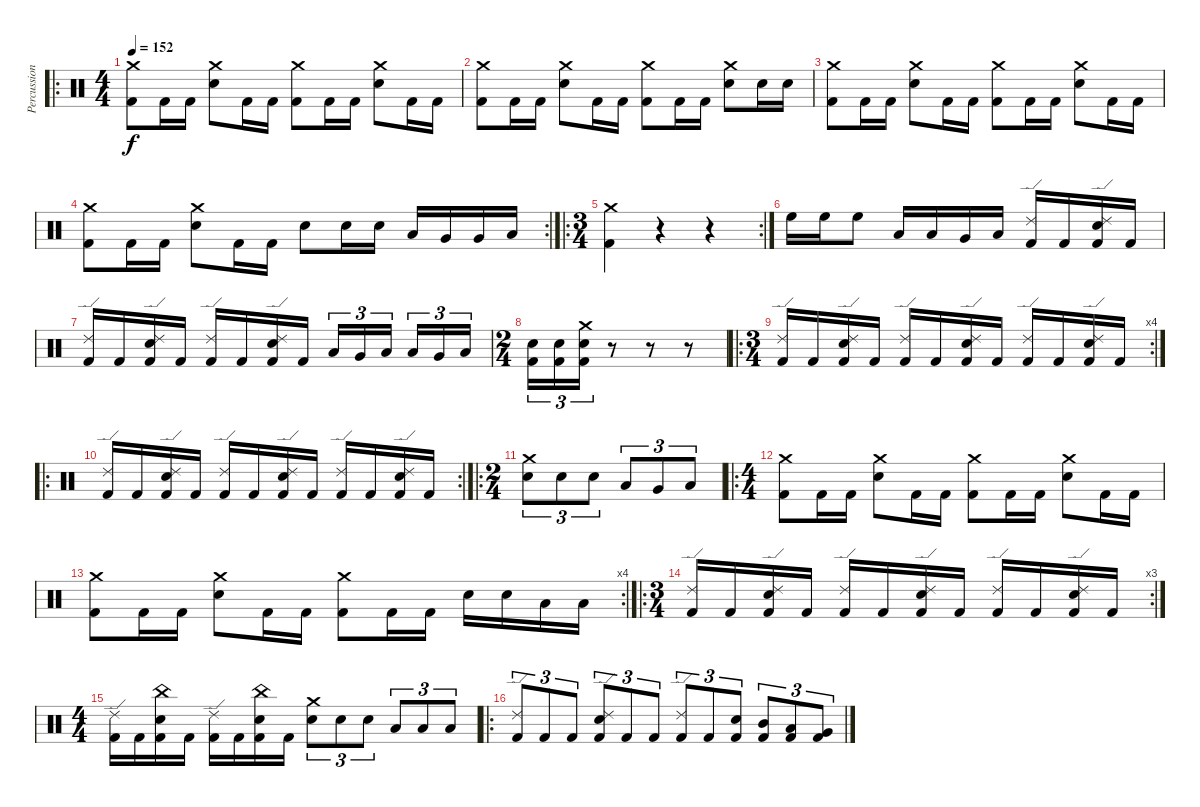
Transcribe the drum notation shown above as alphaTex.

\track ("Percussion" "Percussion") {instrument percussion}
\staff {score}
\articulation defaults
\ro
\ts (4 4)
\tempo 152
\clef neutral
\ks c
("Crash medium (hit)" "Kick (hit) 2").8{dy f} "Kick (hit) 2".16 "Kick (hit) 2".16 ("Crash medium (hit)" "Snare (hit) 2").8 "Kick (hit) 2".16 "Kick (hit) 2".16 ("Crash medium (hit)" "Kick (hit) 2").8 "Kick (hit) 2".16 "Kick (hit) 2".16 ("Crash medium (hit)" "Snare (hit) 2").8 "Kick (hit) 2".16 "Kick (hit) 2".16 |
("Crash medium (hit)" "Kick (hit) 2").8 "Kick (hit) 2".16 "Kick (hit) 2".16 ("Crash medium (hit)" "Snare (hit) 2").8 "Kick (hit) 2".16 "Kick (hit) 2".16 ("Crash medium (hit)" "Kick (hit) 2").8 "Kick (hit) 2".16 "Kick (hit) 2".16 ("Crash medium (hit)" "Snare (hit) 2").8 "Snare (hit) 2".16 "Snare (hit) 2".16 |
("Crash medium (hit)" "Kick (hit) 2").8 "Kick (hit) 2".16 "Kick (hit) 2".16 ("Crash medium (hit)" "Snare (hit) 2").8 "Kick (hit) 2".16 "Kick (hit) 2".16 ("Crash medium (hit)" "Kick (hit) 2").8 "Kick (hit) 2".16 "Kick (hit) 2".16 ("Crash medium (hit)" "Snare (hit) 2").8 "Kick (hit) 2".16 "Kick (hit) 2".16 |
\rc 2
("Crash medium (hit)" "Kick (hit) 2").8 "Kick (hit) 2".16 "Kick (hit) 2".16 ("Crash medium (hit)" "Snare (hit) 2").8 "Kick (hit) 2".16 "Kick (hit) 2".16 "Snare (hit) 2".8 "Snare (hit) 2".16 "Snare (hit) 2".16 "Low Tom (hit)".16 "Very Low Tom (hit)".16 "Very Low Tom (hit)".16 "Low Floor Tom (hit)".16 |
\ro
\rc 2
\ts (3 4)
("Crash medium (hit)" "Kick (hit) 2").4 r.4 r.4 |
"High Floor Tom (hit)".16 "High Floor Tom (hit)".16 "High Floor Tom (hit)".8 "Low Tom (hit)".16 "Low Tom (hit)".16 "Very Low Tom (hit)".16 "Low Floor Tom (hit)".16 ("Ride (edge) 2" "Kick (hit) 2").16 "Kick (hit) 2".16 ("Ride (edge) 2" "Snare (hit) 2" "Kick (hit) 2").16 "Kick (hit) 2".16 |
("Ride (edge) 2" "Kick (hit) 2").16 "Kick (hit) 2".16 ("Ride (edge) 2" "Snare (hit) 2" "Kick (hit) 2").16 "Kick (hit) 2".16 ("Ride (edge) 2" "Kick (hit) 2").16 "Kick (hit) 2".16 ("Ride (edge) 2" "Snare (hit) 2" "Kick (hit) 2").16 "Kick (hit) 2".16 "Low Tom (hit)".16{tu (3 2)} "Very Low Tom (hit)".16{tu (3 2)} "Low Floor Tom (hit)".16{tu (3 2)} "Low Tom (hit)".16{tu (3 2)} "Very Low Tom (hit)".16{tu (3 2)} "Low Floor Tom (hit)".16{tu (3 2)} |
\ts (2 4)
("Snare (hit) 2" "Kick (hit) 2").16{tu (3 2)} ("Snare (hit) 2" "Kick (hit) 2").16{tu (3 2)} ("Crash medium (hit)" "Snare (hit) 2" "Kick (hit) 2").16{tu (3 2)} r.8 r.8 r.8 |
\ro
\rc 4
\ts (3 4)
("Ride (edge) 2" "Kick (hit) 2").16 "Kick (hit) 2".16 ("Ride (edge) 2" "Snare (hit) 2" "Kick (hit) 2").16 "Kick (hit) 2".16 ("Ride (edge) 2" "Kick (hit) 2").16 "Kick (hit) 2".16 ("Ride (edge) 2" "Snare (hit) 2" "Kick (hit) 2").16 "Kick (hit) 2".16 ("Ride (edge) 2" "Kick (hit) 2").16 "Kick (hit) 2".16 ("Ride (edge) 2" "Snare (hit) 2" "Kick (hit) 2").16 "Kick (hit) 2".16 |
\ro
\rc 2
("Ride (edge) 2" "Kick (hit) 2").16 "Kick (hit) 2".16 ("Ride (edge) 2" "Snare (hit) 2" "Kick (hit) 2").16 "Kick (hit) 2".16 ("Ride (edge) 2" "Kick (hit) 2").16 "Kick (hit) 2".16 ("Ride (edge) 2" "Snare (hit) 2" "Kick (hit) 2").16 "Kick (hit) 2".16 ("Ride (edge) 2" "Kick (hit) 2").16 "Kick (hit) 2".16 ("Ride (edge) 2" "Snare (hit) 2" "Kick (hit) 2").16 "Kick (hit) 2".16 |
\ro
\ts (2 4)
("Crash medium (hit)" "Snare (hit) 2").8{tu (3 2)} "Snare (hit) 2".8{tu (3 2)} "Snare (hit) 2".8{tu (3 2)} "Low Tom (hit)".8{tu (3 2)} "Very Low Tom (hit)".8{tu (3 2)} "Low Floor Tom (hit)".8{tu (3 2)} |
\ro
\ts (4 4)
("Crash medium (hit)" "Kick (hit) 2").8 "Kick (hit) 2".16 "Kick (hit) 2".16 ("Crash medium (hit)" "Snare (hit) 2").8 "Kick (hit) 2".16 "Kick (hit) 2".16 ("Crash medium (hit)" "Kick (hit) 2").8 "Kick (hit) 2".16 "Kick (hit) 2".16 ("Crash medium (hit)" "Snare (hit) 2").8 "Kick (hit) 2".16 "Kick (hit) 2".16 |
\rc 4
("Crash medium (hit)" "Kick (hit) 2").8 "Kick (hit) 2".16 "Kick (hit) 2".16 ("Crash medium (hit)" "Snare (hit) 2").8 "Kick (hit) 2".16 "Kick (hit) 2".16 ("Crash medium (hit)" "Kick (hit) 2").8 "Kick (hit) 2".16 "Kick (hit) 2".16 "Snare (hit) 2".16 "Snare (hit) 2".16 "Low Floor Tom (hit)".16 "Low Floor Tom (hit)".16 |
\ro
\rc 3
\ts (3 4)
("Ride (edge) 2" "Kick (hit) 2").16 "Kick (hit) 2".16 ("Ride (edge) 2" "Snare (hit) 2" "Kick (hit) 2").16 "Kick (hit) 2".16 ("Ride (edge) 2" "Kick (hit) 2").16 "Kick (hit) 2".16 ("Ride (edge) 2" "Snare (hit) 2" "Kick (hit) 2").16 "Kick (hit) 2".16 ("Ride (edge) 2" "Kick (hit) 2").16 "Kick (hit) 2".16 ("Ride (edge) 2" "Snare (hit) 2" "Kick (hit) 2").16 "Kick (hit) 2".16 |
\ts (4 4)
("Ride (edge) 2" "Kick (hit) 2").16 "Kick (hit) 2".16 ("China (hit)" "Snare (hit) 2" "Kick (hit) 2").16 "Kick (hit) 2".16 ("Ride (edge) 2" "Kick (hit) 2").16 "Kick (hit) 2".16 ("China (hit)" "Snare (hit) 2" "Kick (hit) 2").16 "Kick (hit) 2".16 ("Crash medium (hit)" "Snare (hit) 2").8{tu (3 2)} "Snare (hit) 2".8{tu (3 2)} "Snare (hit) 2".8{tu (3 2)} "Low Tom (hit)".8{tu (3 2)} "Low Floor Tom (hit)".8{tu (3 2)} "Low Tom (hit)".8{tu (3 2)} |
\ro
("Ride (edge) 2" "Kick (hit) 2").8{tu (3 2)} "Kick (hit) 2".8{tu (3 2)} "Kick (hit) 2".8{tu (3 2)} ("Ride (edge) 2" "Snare (hit) 2" "Kick (hit) 2").8{tu (3 2)} "Kick (hit) 2".8{tu (3 2)} "Kick (hit) 2".8{tu (3 2)} ("Ride (edge) 2" "Kick (hit) 2").8{tu (3 2)} "Kick (hit) 2".8{tu (3 2)} ("Snare (hit) 2" "Kick (hit) 2").8{tu (3 2)} ("Mid Tom (hit)" "Kick (hit) 2").8{tu (3 2)} ("Low Tom (hit)" "Kick (hit) 2").8{tu (3 2)} ("Very Low Tom (hit)" "Kick (hit) 2").8{tu (3 2)}
